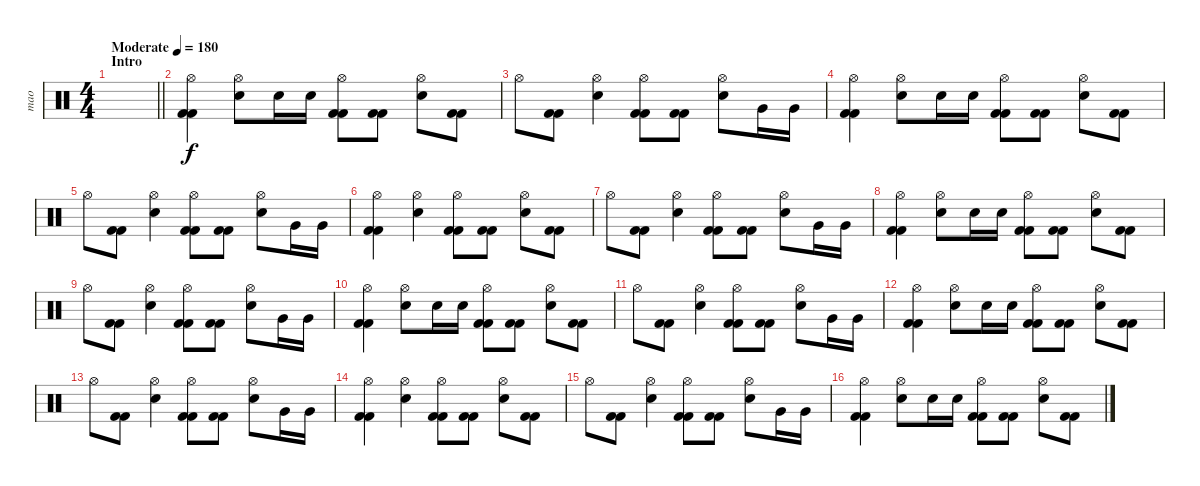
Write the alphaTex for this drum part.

\track ("mao" "mao") {instrument percussion}
\staff {score}
\articulation defaults
\ts (4 4)
\section ("" "Intro")
\tempo (180 "Moderate")
\clef neutral
\barLineRight lightlight
\ks c
|
("Hi-Hat (open)" "Kick (hit) 2" "Kick (hit) 2").4 ("Hi-Hat (open)" "Electric Snare (hit)").8 "Electric Snare (hit)".16 "Electric Snare (hit)".16 ("Hi-Hat (open)" "Kick (hit) 2" "Kick (hit) 2").8 ("Kick (hit) 2" "Kick (hit) 2").8 ("Hi-Hat (open)" "Electric Snare (hit)").8 ("Kick (hit) 2" "Kick (hit) 2").8 |
"Hi-Hat (open)".8 ("Kick (hit) 2" "Kick (hit) 2").8 ("Hi-Hat (open)" "Electric Snare (hit)").4 ("Hi-Hat (open)" "Kick (hit) 2" "Kick (hit) 2").8 ("Kick (hit) 2" "Kick (hit) 2").8 ("Hi-Hat (open)" "Electric Snare (hit)").8 "Very Low Tom (hit)".16 "Very Low Tom (hit)".16 |
("Hi-Hat (open)" "Kick (hit) 2" "Kick (hit) 2").4 ("Hi-Hat (open)" "Electric Snare (hit)").8 "Electric Snare (hit)".16 "Electric Snare (hit)".16 ("Hi-Hat (open)" "Kick (hit) 2" "Kick (hit) 2").8 ("Kick (hit) 2" "Kick (hit) 2").8 ("Hi-Hat (open)" "Electric Snare (hit)").8 ("Kick (hit) 2" "Kick (hit) 2").8 |
"Hi-Hat (open)".8 ("Kick (hit) 2" "Kick (hit) 2").8 ("Hi-Hat (open)" "Electric Snare (hit)").4 ("Hi-Hat (open)" "Kick (hit) 2" "Kick (hit) 2").8 ("Kick (hit) 2" "Kick (hit) 2").8 ("Hi-Hat (open)" "Electric Snare (hit)").8 "Very Low Tom (hit)".16 "Very Low Tom (hit)".16 |
("Hi-Hat (open)" "Kick (hit) 2" "Kick (hit) 2").4 ("Hi-Hat (open)" "Electric Snare (hit)").4 ("Hi-Hat (open)" "Kick (hit) 2" "Kick (hit) 2").8 ("Kick (hit) 2" "Kick (hit) 2").8 ("Hi-Hat (open)" "Electric Snare (hit)").8 ("Kick (hit) 2" "Kick (hit) 2").8 |
"Hi-Hat (open)".8 ("Kick (hit) 2" "Kick (hit) 2").8 ("Hi-Hat (open)" "Electric Snare (hit)").4 ("Hi-Hat (open)" "Kick (hit) 2" "Kick (hit) 2").8 ("Kick (hit) 2" "Kick (hit) 2").8 ("Hi-Hat (open)" "Electric Snare (hit)").8 "Very Low Tom (hit)".16 "Very Low Tom (hit)".16 |
("Hi-Hat (open)" "Kick (hit) 2" "Kick (hit) 2").4 ("Hi-Hat (open)" "Electric Snare (hit)").8 "Electric Snare (hit)".16 "Electric Snare (hit)".16 ("Hi-Hat (open)" "Kick (hit) 2" "Kick (hit) 2").8 ("Kick (hit) 2" "Kick (hit) 2").8 ("Hi-Hat (open)" "Electric Snare (hit)").8 ("Kick (hit) 2" "Kick (hit) 2").8 |
"Hi-Hat (open)".8 ("Kick (hit) 2" "Kick (hit) 2").8 ("Hi-Hat (open)" "Electric Snare (hit)").4 ("Hi-Hat (open)" "Kick (hit) 2" "Kick (hit) 2").8 ("Kick (hit) 2" "Kick (hit) 2").8 ("Hi-Hat (open)" "Electric Snare (hit)").8 "Very Low Tom (hit)".16 "Very Low Tom (hit)".16 |
("Hi-Hat (open)" "Kick (hit) 2" "Kick (hit) 2").4 ("Hi-Hat (open)" "Electric Snare (hit)").8 "Electric Snare (hit)".16 "Electric Snare (hit)".16 ("Hi-Hat (open)" "Kick (hit) 2" "Kick (hit) 2").8 ("Kick (hit) 2" "Kick (hit) 2").8 ("Hi-Hat (open)" "Electric Snare (hit)").8 ("Kick (hit) 2" "Kick (hit) 2").8 |
"Hi-Hat (open)".8 ("Kick (hit) 2" "Kick (hit) 2").8 ("Hi-Hat (open)" "Electric Snare (hit)").4 ("Hi-Hat (open)" "Kick (hit) 2" "Kick (hit) 2").8 ("Kick (hit) 2" "Kick (hit) 2").8 ("Hi-Hat (open)" "Electric Snare (hit)").8 "Very Low Tom (hit)".16 "Very Low Tom (hit)".16 |
("Hi-Hat (open)" "Kick (hit) 2" "Kick (hit) 2").4 ("Hi-Hat (open)" "Electric Snare (hit)").8 "Electric Snare (hit)".16 "Electric Snare (hit)".16 ("Hi-Hat (open)" "Kick (hit) 2" "Kick (hit) 2").8 ("Kick (hit) 2" "Kick (hit) 2").8 ("Hi-Hat (open)" "Electric Snare (hit)").8 ("Kick (hit) 2" "Kick (hit) 2").8 |
"Hi-Hat (open)".8 ("Kick (hit) 2" "Kick (hit) 2").8 ("Hi-Hat (open)" "Electric Snare (hit)").4 ("Hi-Hat (open)" "Kick (hit) 2" "Kick (hit) 2").8 ("Kick (hit) 2" "Kick (hit) 2").8 ("Hi-Hat (open)" "Electric Snare (hit)").8 "Very Low Tom (hit)".16 "Very Low Tom (hit)".16 |
("Hi-Hat (open)" "Kick (hit) 2" "Kick (hit) 2").4 ("Hi-Hat (open)" "Electric Snare (hit)").4 ("Hi-Hat (open)" "Kick (hit) 2" "Kick (hit) 2").8 ("Kick (hit) 2" "Kick (hit) 2").8 ("Hi-Hat (open)" "Electric Snare (hit)").8 ("Kick (hit) 2" "Kick (hit) 2").8 |
"Hi-Hat (open)".8 ("Kick (hit) 2" "Kick (hit) 2").8 ("Hi-Hat (open)" "Electric Snare (hit)").4 ("Hi-Hat (open)" "Kick (hit) 2" "Kick (hit) 2").8 ("Kick (hit) 2" "Kick (hit) 2").8 ("Hi-Hat (open)" "Electric Snare (hit)").8 "Very Low Tom (hit)".16 "Very Low Tom (hit)".16 |
("Hi-Hat (open)" "Kick (hit) 2" "Kick (hit) 2").4 ("Hi-Hat (open)" "Electric Snare (hit)").8 "Electric Snare (hit)".16 "Electric Snare (hit)".16 ("Hi-Hat (open)" "Kick (hit) 2" "Kick (hit) 2").8 ("Kick (hit) 2" "Kick (hit) 2").8 ("Hi-Hat (open)" "Electric Snare (hit)").8 ("Kick (hit) 2" "Kick (hit) 2").8
